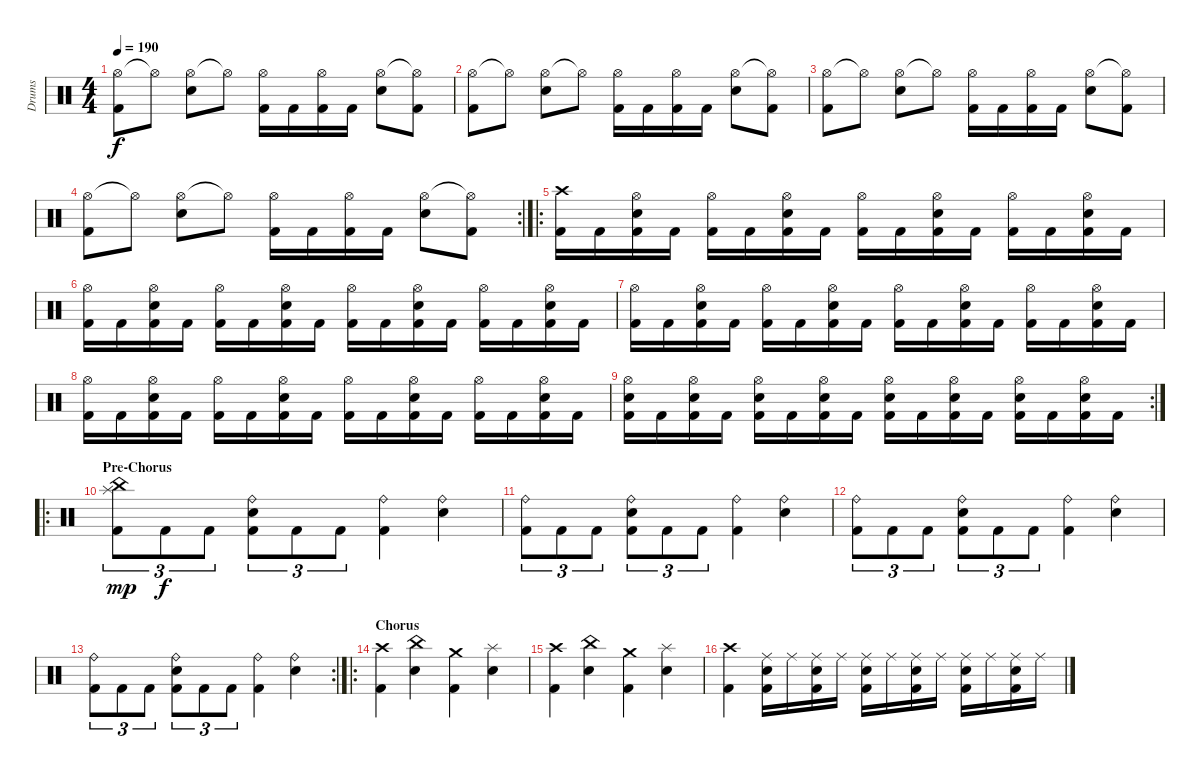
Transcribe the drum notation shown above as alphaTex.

\track ("Drums" "Drums") {instrument percussion}
\staff {score}
\articulation defaults
\ts (4 4)
\tempo 190
\clef neutral
\ks c
("Hi-Hat (open)" "Kick (hit) 2").8{dy f} "Hi-Hat (open)"{t}.8 ("Hi-Hat (open)" "Electric Snare (hit)").8 "Hi-Hat (open)"{t}.8 ("Kick (hit) 2" "Hi-Hat (open)").16 "Kick (hit) 2".16 ("Kick (hit) 2" "Hi-Hat (open)").16 "Kick (hit) 2".16 ("Electric Snare (hit)" "Hi-Hat (open)").8 ("Kick (hit) 2" "Hi-Hat (open)"{t}).8 |
("Hi-Hat (open)" "Kick (hit) 2").8 "Hi-Hat (open)"{t}.8 ("Hi-Hat (open)" "Electric Snare (hit)").8 "Hi-Hat (open)"{t}.8 ("Kick (hit) 2" "Hi-Hat (open)").16 "Kick (hit) 2".16 ("Kick (hit) 2" "Hi-Hat (open)").16 "Kick (hit) 2".16 ("Electric Snare (hit)" "Hi-Hat (open)").8 ("Kick (hit) 2" "Hi-Hat (open)"{t}).8 |
("Hi-Hat (open)" "Kick (hit) 2").8 "Hi-Hat (open)"{t}.8 ("Hi-Hat (open)" "Electric Snare (hit)").8 "Hi-Hat (open)"{t}.8 ("Kick (hit) 2" "Hi-Hat (open)").16 "Kick (hit) 2".16 ("Kick (hit) 2" "Hi-Hat (open)").16 "Kick (hit) 2".16 ("Electric Snare (hit)" "Hi-Hat (open)").8 ("Kick (hit) 2" "Hi-Hat (open)"{t}).8 |
\rc 2
("Hi-Hat (open)" "Kick (hit) 2").8 "Hi-Hat (open)"{t}.8 ("Hi-Hat (open)" "Electric Snare (hit)").8 "Hi-Hat (open)"{t}.8 ("Kick (hit) 2" "Hi-Hat (open)").16 "Kick (hit) 2".16 ("Kick (hit) 2" "Hi-Hat (open)").16 "Kick (hit) 2".16 ("Electric Snare (hit)" "Hi-Hat (open)").8 ("Kick (hit) 2" "Hi-Hat (open)"{t}).8 |
\ro
("Kick (hit) 2" "Crash high (hit)").16 "Kick (hit) 2".16 ("Kick (hit) 2" "Hi-Hat (open)" "Electric Snare (hit)").16 "Kick (hit) 2".16 ("Kick (hit) 2" "Hi-Hat (open)").16 "Kick (hit) 2".16 ("Kick (hit) 2" "Hi-Hat (open)" "Electric Snare (hit)").16 "Kick (hit) 2".16 ("Kick (hit) 2" "Hi-Hat (open)").16 "Kick (hit) 2".16 ("Kick (hit) 2" "Hi-Hat (open)" "Electric Snare (hit)").16 "Kick (hit) 2".16 ("Kick (hit) 2" "Hi-Hat (open)").16 "Kick (hit) 2".16 ("Kick (hit) 2" "Hi-Hat (open)" "Electric Snare (hit)").16 "Kick (hit) 2".16 |
("Kick (hit) 2" "Hi-Hat (open)").16 "Kick (hit) 2".16 ("Kick (hit) 2" "Hi-Hat (open)" "Electric Snare (hit)").16 "Kick (hit) 2".16 ("Kick (hit) 2" "Hi-Hat (open)").16 "Kick (hit) 2".16 ("Kick (hit) 2" "Hi-Hat (open)" "Electric Snare (hit)").16 "Kick (hit) 2".16 ("Kick (hit) 2" "Hi-Hat (open)").16 "Kick (hit) 2".16 ("Kick (hit) 2" "Hi-Hat (open)" "Electric Snare (hit)").16 "Kick (hit) 2".16 ("Kick (hit) 2" "Hi-Hat (open)").16 "Kick (hit) 2".16 ("Kick (hit) 2" "Hi-Hat (open)" "Electric Snare (hit)").16 "Kick (hit) 2".16 |
("Kick (hit) 2" "Hi-Hat (open)").16 "Kick (hit) 2".16 ("Kick (hit) 2" "Hi-Hat (open)" "Electric Snare (hit)").16 "Kick (hit) 2".16 ("Kick (hit) 2" "Hi-Hat (open)").16 "Kick (hit) 2".16 ("Kick (hit) 2" "Hi-Hat (open)" "Electric Snare (hit)").16 "Kick (hit) 2".16 ("Kick (hit) 2" "Hi-Hat (open)").16 "Kick (hit) 2".16 ("Kick (hit) 2" "Hi-Hat (open)" "Electric Snare (hit)").16 "Kick (hit) 2".16 ("Kick (hit) 2" "Hi-Hat (open)").16 "Kick (hit) 2".16 ("Kick (hit) 2" "Hi-Hat (open)" "Electric Snare (hit)").16 "Kick (hit) 2".16 |
("Kick (hit) 2" "Hi-Hat (open)").16 "Kick (hit) 2".16 ("Kick (hit) 2" "Hi-Hat (open)" "Electric Snare (hit)").16 "Kick (hit) 2".16 ("Kick (hit) 2" "Hi-Hat (open)").16 "Kick (hit) 2".16 ("Kick (hit) 2" "Hi-Hat (open)" "Electric Snare (hit)").16 "Kick (hit) 2".16 ("Kick (hit) 2" "Hi-Hat (open)").16 "Kick (hit) 2".16 ("Kick (hit) 2" "Hi-Hat (open)" "Electric Snare (hit)").16 "Kick (hit) 2".16 ("Kick (hit) 2" "Hi-Hat (open)").16 "Kick (hit) 2".16 ("Kick (hit) 2" "Hi-Hat (open)" "Electric Snare (hit)").16 "Kick (hit) 2".16 |
\rc 2
("Kick (hit) 2" "Hi-Hat (open)" "Electric Snare (hit)").16 "Kick (hit) 2".16 ("Kick (hit) 2" "Hi-Hat (open)" "Electric Snare (hit)").16 "Kick (hit) 2".16 ("Kick (hit) 2" "Hi-Hat (open)" "Electric Snare (hit)").16 "Kick (hit) 2".16 ("Kick (hit) 2" "Hi-Hat (open)" "Electric Snare (hit)").16 "Kick (hit) 2".16 ("Kick (hit) 2" "Hi-Hat (open)" "Electric Snare (hit)").16 "Kick (hit) 2".16 ("Kick (hit) 2" "Hi-Hat (open)" "Electric Snare (hit)").16 "Kick (hit) 2".16 ("Kick (hit) 2" "Hi-Hat (open)" "Electric Snare (hit)").16 "Kick (hit) 2".16 ("Kick (hit) 2" "Hi-Hat (open)" "Electric Snare (hit)").16 "Kick (hit) 2".16 |
\ro
\section ("" "Pre-Chorus")
("Kick (hit) 2" "China (hit)" "Splash (hit)").8{tu (3 2) dy mp} "Kick (hit) 2".8{tu (3 2) dy f} "Kick (hit) 2".8{tu (3 2)} ("Kick (hit) 2" "Ride (bell)" "Electric Snare (hit)").8{tu (3 2)} "Kick (hit) 2".8{tu (3 2)} "Kick (hit) 2".8{tu (3 2)} ("Ride (bell)" "Kick (hit) 2").4 ("Ride (bell)" "Electric Snare (hit)").4 |
("Kick (hit) 2" "Ride (bell)").8{tu (3 2)} "Kick (hit) 2".8{tu (3 2)} "Kick (hit) 2".8{tu (3 2)} ("Kick (hit) 2" "Ride (bell)" "Electric Snare (hit)").8{tu (3 2)} "Kick (hit) 2".8{tu (3 2)} "Kick (hit) 2".8{tu (3 2)} ("Ride (bell)" "Kick (hit) 2").4 ("Ride (bell)" "Electric Snare (hit)").4 |
("Kick (hit) 2" "Ride (bell)").8{tu (3 2)} "Kick (hit) 2".8{tu (3 2)} "Kick (hit) 2".8{tu (3 2)} ("Kick (hit) 2" "Ride (bell)" "Electric Snare (hit)").8{tu (3 2)} "Kick (hit) 2".8{tu (3 2)} "Kick (hit) 2".8{tu (3 2)} ("Ride (bell)" "Kick (hit) 2").4 ("Ride (bell)" "Electric Snare (hit)").4 |
\rc 2
("Kick (hit) 2" "Ride (bell)").8{tu (3 2)} "Kick (hit) 2".8{tu (3 2)} "Kick (hit) 2".8{tu (3 2)} ("Kick (hit) 2" "Ride (bell)" "Electric Snare (hit)").8{tu (3 2)} "Kick (hit) 2".8{tu (3 2)} "Kick (hit) 2".8{tu (3 2)} ("Ride (bell)" "Kick (hit) 2").4 ("Ride (bell)" "Electric Snare (hit)").4 |
\ro
\section ("" "Chorus")
("Crash high (hit)" "Kick (hit) 2").4 ("China (hit)" "Electric Snare (hit)").4 ("Crash medium (hit)" "Kick (hit) 2").4 ("Splash (hit)" "Electric Snare (hit)").4 |
("Crash high (hit)" "Kick (hit) 2").4 ("China (hit)" "Electric Snare (hit)").4 ("Crash medium (hit)" "Kick (hit) 2").4 ("Splash (hit)" "Electric Snare (hit)").4 |
("Crash high (hit)" "Kick (hit) 2").4 ("Ride (middle)" "Kick (hit) 2" "Electric Snare (hit)").16 "Ride (middle)".16 ("Ride (middle)" "Kick (hit) 2" "Electric Snare (hit)").16 "Ride (middle)".16 ("Ride (middle)" "Kick (hit) 2" "Electric Snare (hit)").16 "Ride (middle)".16 ("Ride (middle)" "Kick (hit) 2" "Electric Snare (hit)").16 "Ride (middle)".16 ("Ride (middle)" "Kick (hit) 2" "Electric Snare (hit)").16 "Ride (middle)".16 ("Ride (middle)" "Kick (hit) 2" "Electric Snare (hit)").16 "Ride (middle)".16
